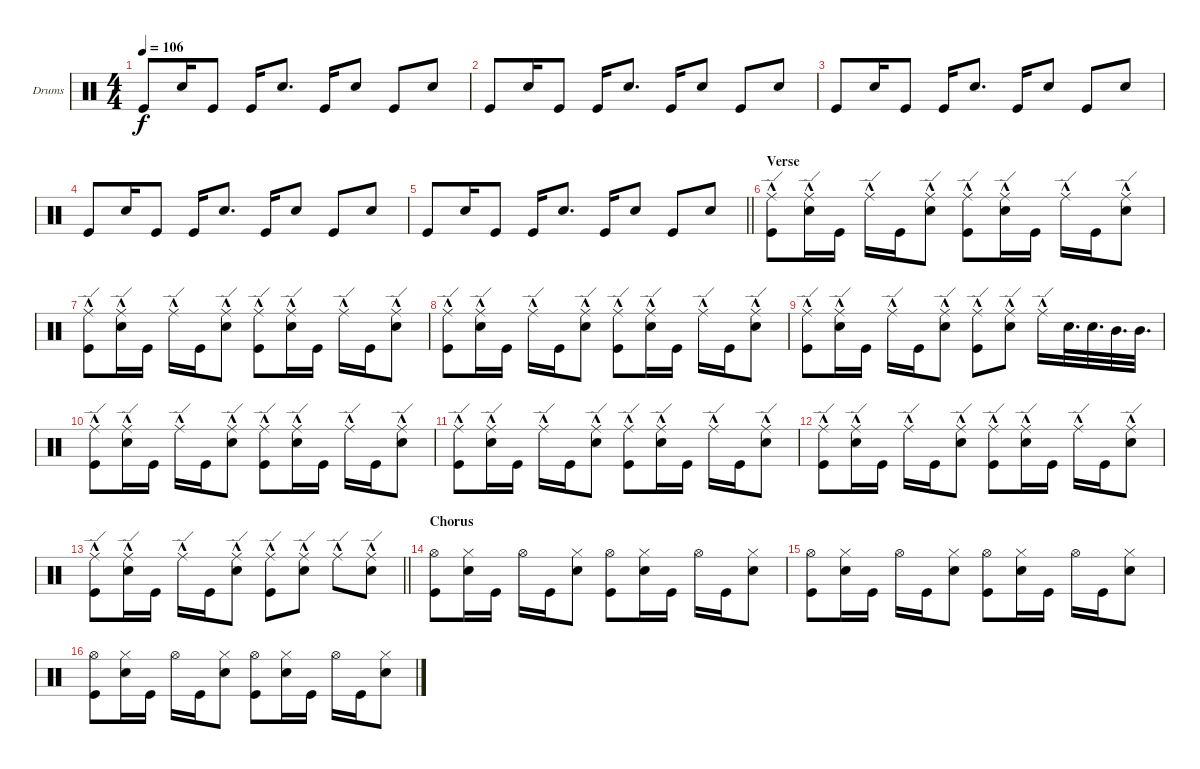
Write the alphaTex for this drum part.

\bracketExtendMode groupsimilarinstruments
\firstSystemTrackNameOrientation horizontal
\otherSystemsTrackNameOrientation horizontal
\track ("Fabrizio" "Drums") {instrument percussion}
\staff {score}
\articulation defaults
\ts (4 4)
\tempo 106
\clef neutral
\ks c "Kick (hit)".8{dy f} "Snare (hit) 2".16 "Kick (hit)".8 "Kick (hit)".16 "Snare (hit) 2".8{d} "Kick (hit)".16 "Snare (hit) 2".8 "Kick (hit)".8 "Snare (hit) 2".8
|
"Kick (hit)".8 "Snare (hit) 2".16 "Kick (hit)".8 "Kick (hit)".16 "Snare (hit) 2".8{d} "Kick (hit)".16 "Snare (hit) 2".8 "Kick (hit)".8 "Snare (hit) 2".8 |
"Kick (hit)".8 "Snare (hit) 2".16 "Kick (hit)".8 "Kick (hit)".16 "Snare (hit) 2".8{d} "Kick (hit)".16 "Snare (hit) 2".8 "Kick (hit)".8 "Snare (hit) 2".8 |
"Kick (hit)".8 "Snare (hit) 2".16 "Kick (hit)".8 "Kick (hit)".16 "Snare (hit) 2".8{d} "Kick (hit)".16 "Snare (hit) 2".8 "Kick (hit)".8 "Snare (hit) 2".8 |
\barLineRight lightlight "Kick (hit)".8 "Snare (hit) 2".16 "Kick (hit)".8 "Kick (hit)".16 "Snare (hit) 2".8{d} "Kick (hit)".16 "Snare (hit) 2".8 "Kick (hit)".8 "Snare (hit) 2".8
|
\section ("" "Verse")
("Ride (edge)"{hac} "Kick (hit)").8 ("Ride (edge)"{hac} "Snare (hit) 2").16 "Kick (hit)".16 "Ride (edge)"{hac}.16 "Kick (hit)".16 ("Ride (edge)"{hac} "Snare (hit) 2").8 ("Ride (edge)"{hac} "Kick (hit)").8 ("Ride (edge)"{hac} "Snare (hit) 2").16 "Kick (hit)".16 "Ride (edge)"{hac}.16 "Kick (hit)".16 ("Ride (edge)"{hac} "Snare (hit) 2").8 |
("Ride (edge)"{hac} "Kick (hit)").8 ("Ride (edge)"{hac} "Snare (hit) 2").16 "Kick (hit)".16 "Ride (edge)"{hac}.16 "Kick (hit)".16 ("Ride (edge)"{hac} "Snare (hit) 2").8 ("Ride (edge)"{hac} "Kick (hit)").8 ("Ride (edge)"{hac} "Snare (hit) 2").16 "Kick (hit)".16 "Ride (edge)"{hac}.16 "Kick (hit)".16 ("Ride (edge)"{hac} "Snare (hit) 2").8 |
("Ride (edge)"{hac} "Kick (hit)").8 ("Ride (edge)"{hac} "Snare (hit) 2").16 "Kick (hit)".16 "Ride (edge)"{hac}.16 "Kick (hit)".16 ("Ride (edge)"{hac} "Snare (hit) 2").8 ("Ride (edge)"{hac} "Kick (hit)").8 ("Ride (edge)"{hac} "Snare (hit) 2").16 "Kick (hit)".16 "Ride (edge)"{hac}.16 "Kick (hit)".16 ("Ride (edge)"{hac} "Snare (hit) 2").8 |
("Ride (edge)"{hac} "Kick (hit)").8 ("Ride (edge)"{hac} "Snare (hit) 2").16 "Kick (hit)".16 "Ride (edge)"{hac}.16 "Kick (hit)".16 ("Ride (edge)"{hac} "Snare (hit) 2").8 ("Ride (edge)"{hac} "Kick (hit)").8 ("Ride (edge)"{hac} "Snare (hit) 2").8 "Ride (edge)"{hac}.16 "Snare (hit) 2".32{d} "Snare (hit) 2".32{d} "Mid Tom (hit)".32{d} "Mid Tom (hit)".32{d} |
("Ride (edge)"{hac} "Kick (hit)").8 ("Ride (edge)"{hac} "Snare (hit) 2").16 "Kick (hit)".16 "Ride (edge)"{hac}.16 "Kick (hit)".16 ("Ride (edge)"{hac} "Snare (hit) 2").8 ("Ride (edge)"{hac} "Kick (hit)").8 ("Ride (edge)"{hac} "Snare (hit) 2").16 "Kick (hit)".16 "Ride (edge)"{hac}.16 "Kick (hit)".16 ("Ride (edge)"{hac} "Snare (hit) 2").8 |
("Ride (edge)"{hac} "Kick (hit)").8 ("Ride (edge)"{hac} "Snare (hit) 2").16 "Kick (hit)".16 "Ride (edge)"{hac}.16 "Kick (hit)".16 ("Ride (edge)"{hac} "Snare (hit) 2").8 ("Ride (edge)"{hac} "Kick (hit)").8 ("Ride (edge)"{hac} "Snare (hit) 2").16 "Kick (hit)".16 "Ride (edge)"{hac}.16 "Kick (hit)".16 ("Ride (edge)"{hac} "Snare (hit) 2").8 |
("Ride (edge)"{hac} "Kick (hit)").8 ("Ride (edge)"{hac} "Snare (hit) 2").16 "Kick (hit)".16 "Ride (edge)"{hac}.16 "Kick (hit)".16 ("Ride (edge)"{hac} "Snare (hit) 2").8 ("Ride (edge)"{hac} "Kick (hit)").8 ("Ride (edge)"{hac} "Snare (hit) 2").16 "Kick (hit)".16 "Ride (edge)"{hac}.16 "Kick (hit)".16 ("Ride (edge)"{hac} "Snare (hit) 2").8 |
\barLineRight lightlight
("Ride (edge)"{hac} "Kick (hit)").8 ("Ride (edge)"{hac} "Snare (hit) 2").16 "Kick (hit)".16 "Ride (edge)"{hac}.16 "Kick (hit)".16 ("Ride (edge)"{hac} "Snare (hit) 2").8 ("Ride (edge)"{hac} "Kick (hit)").8 ("Ride (edge)"{hac} "Snare (hit) 2").8 "Ride (edge)"{hac}.8 ("Ride (edge)"{hac} "Snare (hit) 2").8 |
\section ("" "Chorus")
("Hi-Hat (open)" "Kick (hit)").8 ("Hi-Hat (closed)" "Snare (hit) 2").16 "Kick (hit)".16 "Hi-Hat (open)".16 "Kick (hit)".16 ("Hi-Hat (closed)" "Snare (hit) 2").8 ("Hi-Hat (open)" "Kick (hit)").8 ("Hi-Hat (closed)" "Snare (hit) 2").16 "Kick (hit)".16 "Hi-Hat (open)".16 "Kick (hit)".16 ("Hi-Hat (closed)" "Snare (hit) 2").8 |
("Hi-Hat (open)" "Kick (hit)").8 ("Hi-Hat (closed)" "Snare (hit) 2").16 "Kick (hit)".16 "Hi-Hat (open)".16 "Kick (hit)".16 ("Hi-Hat (closed)" "Snare (hit) 2").8 ("Hi-Hat (open)" "Kick (hit)").8 ("Hi-Hat (closed)" "Snare (hit) 2").16 "Kick (hit)".16 "Hi-Hat (open)".16 "Kick (hit)".16 ("Hi-Hat (closed)" "Snare (hit) 2").8 |
("Hi-Hat (open)" "Kick (hit)").8 ("Hi-Hat (closed)" "Snare (hit) 2").16 "Kick (hit)".16 "Hi-Hat (open)".16 "Kick (hit)".16 ("Hi-Hat (closed)" "Snare (hit) 2").8 ("Hi-Hat (open)" "Kick (hit)").8 ("Hi-Hat (closed)" "Snare (hit) 2").16 "Kick (hit)".16 "Hi-Hat (open)".16 "Kick (hit)".16 ("Hi-Hat (closed)" "Snare (hit) 2").8
